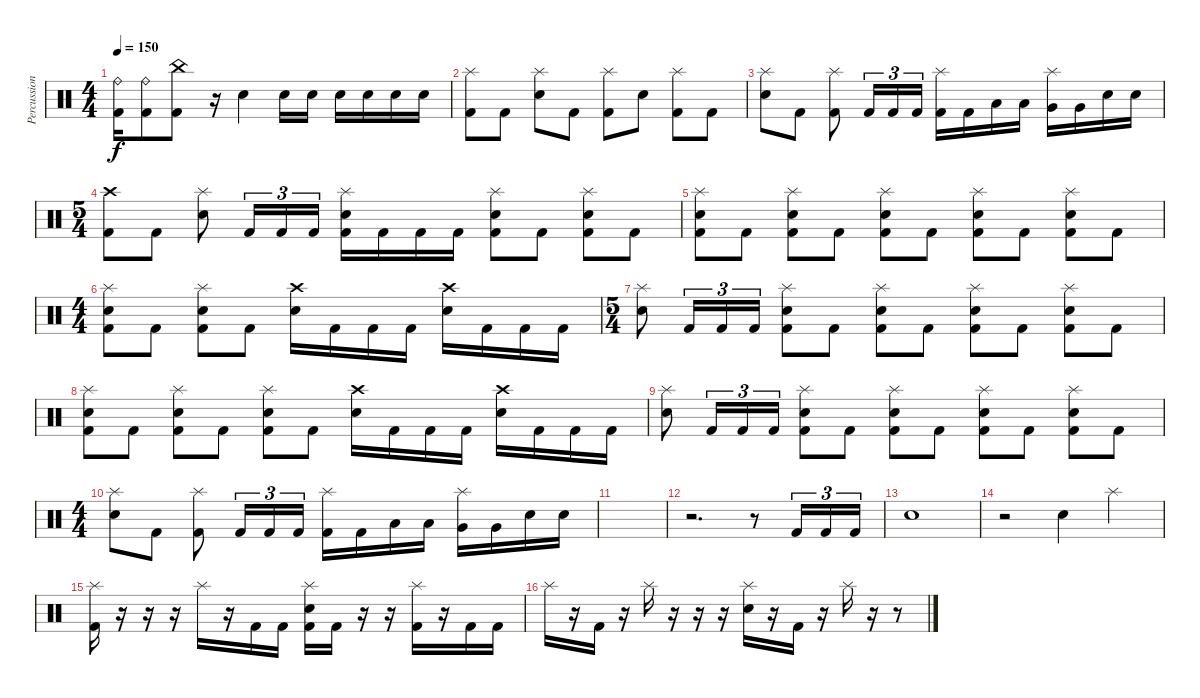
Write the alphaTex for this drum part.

\track ("Percussion" "Percussion") {instrument percussion}
\staff {score}
\articulation defaults
\ts (4 4)
\tempo 150
\clef neutral
\ks c
("Ride (bell)" "Kick (hit) 2").16{dy f} ("Ride (bell)" "Kick (hit) 2").8 ("China (hit)" "Kick (hit) 2").8 r.16 "Electric Snare (hit)".4 "Electric Snare (hit)".16 "Electric Snare (hit)".16 "Electric Snare (hit)".16 "Electric Snare (hit)".16 "Electric Snare (hit)".16 "Electric Snare (hit)".16 |
("Splash (hit)" "Kick (hit) 2").8 "Kick (hit) 2".8 ("Splash (hit)" "Electric Snare (hit)").8 "Kick (hit) 2".8 ("Splash (hit)" "Kick (hit) 2").8 "Electric Snare (hit)".8 ("Splash (hit)" "Kick (hit) 2").8 "Kick (hit) 2".8 |
("Splash (hit)" "Electric Snare (hit)").8 "Kick (hit) 2".8 ("Splash (hit)" "Kick (hit) 2").8 "Kick (hit) 2".16{tu (3 2)} "Kick (hit) 2".16{tu (3 2)} "Kick (hit) 2".16{tu (3 2)} ("Splash (hit)" "Kick (hit) 2").16 "Kick (hit) 2".16 "Low Tom (hit)".16 "Low Tom (hit)".16 ("Splash (hit)" "Very Low Tom (hit)").16 "Very Low Tom (hit)".16 "Electric Snare (hit)".16 "Electric Snare (hit)".16 |
\ts (5 4)
("Crash high (hit)" "Kick (hit) 2").8 "Kick (hit) 2".8 ("Splash (hit)" "Electric Snare (hit)").8 "Kick (hit) 2".16{tu (3 2)} "Kick (hit) 2".16{tu (3 2)} "Kick (hit) 2".16{tu (3 2)} ("Splash (hit)" "Electric Snare (hit)" "Kick (hit) 2").16 "Kick (hit) 2".16 "Kick (hit) 2".16 "Kick (hit) 2".16 ("Splash (hit)" "Electric Snare (hit)" "Kick (hit) 2").8 "Kick (hit) 2".8 ("Splash (hit)" "Electric Snare (hit)" "Kick (hit) 2").8 "Kick (hit) 2".8 |
("Splash (hit)" "Electric Snare (hit)" "Kick (hit) 2").8 "Kick (hit) 2".8 ("Splash (hit)" "Electric Snare (hit)" "Kick (hit) 2").8 "Kick (hit) 2".8 ("Splash (hit)" "Electric Snare (hit)" "Kick (hit) 2").8 "Kick (hit) 2".8 ("Splash (hit)" "Electric Snare (hit)" "Kick (hit) 2").8 "Kick (hit) 2".8 ("Splash (hit)" "Electric Snare (hit)" "Kick (hit) 2").8 "Kick (hit) 2".8 |
\ts (4 4)
("Splash (hit)" "Electric Snare (hit)" "Kick (hit) 2").8 "Kick (hit) 2".8 ("Splash (hit)" "Electric Snare (hit)" "Kick (hit) 2").8 "Kick (hit) 2".8 ("Crash high (hit)" "Electric Snare (hit)").16 "Kick (hit) 2".16 "Kick (hit) 2".16 "Kick (hit) 2".16 ("Crash high (hit)" "Electric Snare (hit)").16 "Kick (hit) 2".16 "Kick (hit) 2".16 "Kick (hit) 2".16 |
\ts (5 4)
("Splash (hit)" "Electric Snare (hit)").8 "Kick (hit) 2".16{tu (3 2)} "Kick (hit) 2".16{tu (3 2)} "Kick (hit) 2".16{tu (3 2)} ("Splash (hit)" "Electric Snare (hit)" "Kick (hit) 2").8 "Kick (hit) 2".8 ("Splash (hit)" "Electric Snare (hit)" "Kick (hit) 2").8 "Kick (hit) 2".8 ("Splash (hit)" "Electric Snare (hit)" "Kick (hit) 2").8 "Kick (hit) 2".8 ("Splash (hit)" "Electric Snare (hit)" "Kick (hit) 2").8 "Kick (hit) 2".8 |
("Splash (hit)" "Electric Snare (hit)" "Kick (hit) 2").8 "Kick (hit) 2".8 ("Splash (hit)" "Electric Snare (hit)" "Kick (hit) 2").8 "Kick (hit) 2".8 ("Splash (hit)" "Electric Snare (hit)" "Kick (hit) 2").8 "Kick (hit) 2".8 ("Crash high (hit)" "Electric Snare (hit)").16 "Kick (hit) 2".16 "Kick (hit) 2".16 "Kick (hit) 2".16 ("Crash high (hit)" "Electric Snare (hit)").16 "Kick (hit) 2".16 "Kick (hit) 2".16 "Kick (hit) 2".16 |
("Splash (hit)" "Electric Snare (hit)").8 "Kick (hit) 2".16{tu (3 2)} "Kick (hit) 2".16{tu (3 2)} "Kick (hit) 2".16{tu (3 2)} ("Splash (hit)" "Electric Snare (hit)" "Kick (hit) 2").8 "Kick (hit) 2".8 ("Splash (hit)" "Electric Snare (hit)" "Kick (hit) 2").8 "Kick (hit) 2".8 ("Splash (hit)" "Electric Snare (hit)" "Kick (hit) 2").8 "Kick (hit) 2".8 ("Splash (hit)" "Electric Snare (hit)" "Kick (hit) 2").8 "Kick (hit) 2".8 |
\ts (4 4)
("Splash (hit)" "Electric Snare (hit)").8 "Kick (hit) 2".8 ("Splash (hit)" "Kick (hit) 2").8 "Kick (hit) 2".16{tu (3 2)} "Kick (hit) 2".16{tu (3 2)} "Kick (hit) 2".16{tu (3 2)} ("Splash (hit)" "Kick (hit) 2").16 "Kick (hit) 2".16 "Low Tom (hit)".16 "Low Tom (hit)".16 ("Splash (hit)" "Very Low Tom (hit)").16 "Very Low Tom (hit)".16 "Electric Snare (hit)".16 "Electric Snare (hit)".16 |
|
r.2{d} r.8 "Kick (hit) 2".16{tu (3 2)} "Kick (hit) 2".16{tu (3 2)} "Kick (hit) 2".16{tu (3 2)} |
"Electric Snare (hit)".1 |
r.2 "Electric Snare (hit)".4 "Splash (hit)".4 |
("Splash (hit)" "Kick (hit) 2").16 r.16 r.16 r.16 "Splash (hit)".16 r.16 "Kick (hit) 2".16 "Kick (hit) 2".16 ("Splash (hit)" "Electric Snare (hit)" "Kick (hit) 2").16 "Kick (hit) 2".16 r.16 r.16 ("Splash (hit)" "Kick (hit) 2").16 r.16 "Kick (hit) 2".16 "Kick (hit) 2".16 |
"Splash (hit)".16 r.16 "Kick (hit) 2".16 r.16 "Splash (hit)".16 r.16 r.16 r.16 ("Splash (hit)" "Electric Snare (hit)").16 r.16 "Kick (hit) 2".16 r.16 "Splash (hit)".16 r.16 r.8
